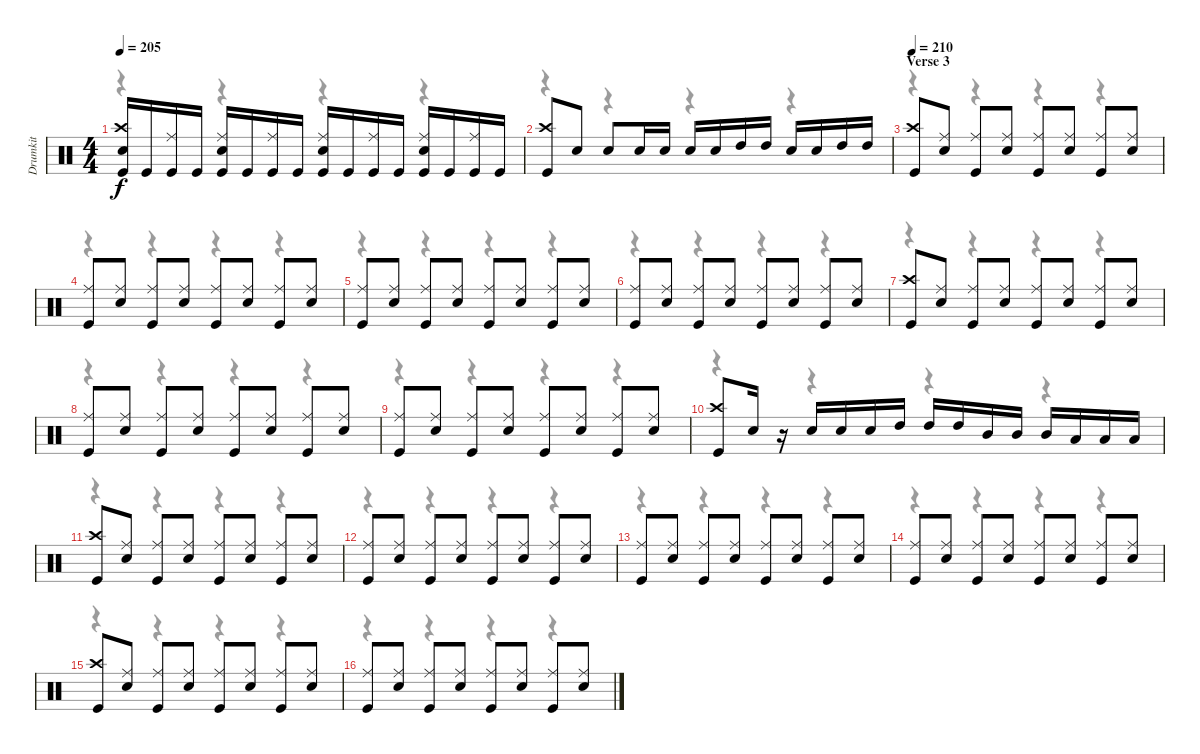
\track ("Drumkit" "Drumkit") {instrument percussion}
\staff {score}
\articulation defaults
\voice
\ts (4 4)
\tempo 205
\clef neutral
\ks c
("Crash high (hit)" "Snare (hit) 2" "Kick (hit)").16{dy f} "Kick (hit)".16 ("Ride (middle)" "Kick (hit)").16 "Kick (hit)".16 ("Ride (middle)" "Snare (hit) 2" "Kick (hit)").16 "Kick (hit)".16 ("Ride (middle)" "Kick (hit)").16 "Kick (hit)".16 ("Ride (middle)" "Snare (hit) 2" "Kick (hit)").16 "Kick (hit)".16 ("Ride (middle)" "Kick (hit)").16 "Kick (hit)".16 ("Ride (middle)" "Snare (hit) 2" "Kick (hit)").16 "Kick (hit)".16 ("Ride (middle)" "Kick (hit)").16 "Kick (hit)".16 |
("Crash high (hit)" "Kick (hit)").8 "Snare (hit) 2".8 "Snare (hit) 2".8 "Snare (hit) 2".16 "Snare (hit) 2".16 "Snare (hit) 2".16 "Snare (hit) 2".16 "High Tom (hit)".16 "High Tom (hit)".16 "Snare (hit) 2".16 "Snare (hit) 2".16 "High Tom (hit)".16 "High Tom (hit)".16 |
\section ("" "Verse 3")
\tempo 210
("Crash high (hit)" "Kick (hit)").8 ("Ride (middle)" "Snare (hit) 2").8 ("Ride (middle)" "Kick (hit)").8 ("Ride (middle)" "Snare (hit) 2").8 ("Ride (middle)" "Kick (hit)").8 ("Ride (middle)" "Snare (hit) 2").8 ("Ride (middle)" "Kick (hit)").8 ("Ride (middle)" "Snare (hit) 2").8 |
("Ride (middle)" "Kick (hit)").8 ("Ride (middle)" "Snare (hit) 2").8 ("Ride (middle)" "Kick (hit)").8 ("Ride (middle)" "Snare (hit) 2").8 ("Ride (middle)" "Kick (hit)").8 ("Ride (middle)" "Snare (hit) 2").8 ("Ride (middle)" "Kick (hit)").8 ("Ride (middle)" "Snare (hit) 2").8 |
("Ride (middle)" "Kick (hit)").8 ("Ride (middle)" "Snare (hit) 2").8 ("Ride (middle)" "Kick (hit)").8 ("Ride (middle)" "Snare (hit) 2").8 ("Ride (middle)" "Kick (hit)").8 ("Ride (middle)" "Snare (hit) 2").8 ("Ride (middle)" "Kick (hit)").8 ("Ride (middle)" "Snare (hit) 2").8 |
("Ride (middle)" "Kick (hit)").8 ("Ride (middle)" "Snare (hit) 2").8 ("Ride (middle)" "Kick (hit)").8 ("Ride (middle)" "Snare (hit) 2").8 ("Ride (middle)" "Kick (hit)").8 ("Ride (middle)" "Snare (hit) 2").8 ("Ride (middle)" "Kick (hit)").8 ("Ride (middle)" "Snare (hit) 2").8 |
("Crash high (hit)" "Kick (hit)").8 ("Ride (middle)" "Snare (hit) 2").8 ("Ride (middle)" "Kick (hit)").8 ("Ride (middle)" "Snare (hit) 2").8 ("Ride (middle)" "Kick (hit)").8 ("Ride (middle)" "Snare (hit) 2").8 ("Ride (middle)" "Kick (hit)").8 ("Ride (middle)" "Snare (hit) 2").8 |
("Ride (middle)" "Kick (hit)").8 ("Ride (middle)" "Snare (hit) 2").8 ("Ride (middle)" "Kick (hit)").8 ("Ride (middle)" "Snare (hit) 2").8 ("Ride (middle)" "Kick (hit)").8 ("Ride (middle)" "Snare (hit) 2").8 ("Ride (middle)" "Kick (hit)").8 ("Ride (middle)" "Snare (hit) 2").8 |
("Ride (middle)" "Kick (hit)").8 ("Ride (middle)" "Snare (hit) 2").8 ("Ride (middle)" "Kick (hit)").8 ("Ride (middle)" "Snare (hit) 2").8 ("Ride (middle)" "Kick (hit)").8 ("Ride (middle)" "Snare (hit) 2").8 ("Ride (middle)" "Kick (hit)").8 ("Ride (middle)" "Snare (hit) 2").8 |
("Crash high (hit)" "Kick (hit)").8 "Snare (hit) 2".16 r.16 "Snare (hit) 2".16 "Snare (hit) 2".16 "Snare (hit) 2".16 "High Tom (hit)".16 "High Tom (hit)".16 "High Tom (hit)".16 "Mid Tom (hit)".16 "Mid Tom (hit)".16 "Mid Tom (hit)".16 "Low Tom (hit)".16 "Low Tom (hit)".16 "Low Tom (hit)".16 |
("Crash high (hit)" "Kick (hit)").8 ("Ride (middle)" "Snare (hit) 2").8 ("Ride (middle)" "Kick (hit)").8 ("Ride (middle)" "Snare (hit) 2").8 ("Ride (middle)" "Kick (hit)").8 ("Ride (middle)" "Snare (hit) 2").8 ("Ride (middle)" "Kick (hit)").8 ("Ride (middle)" "Snare (hit) 2").8 |
("Ride (middle)" "Kick (hit)").8 ("Ride (middle)" "Snare (hit) 2").8 ("Ride (middle)" "Kick (hit)").8 ("Ride (middle)" "Snare (hit) 2").8 ("Ride (middle)" "Kick (hit)").8 ("Ride (middle)" "Snare (hit) 2").8 ("Ride (middle)" "Kick (hit)").8 ("Ride (middle)" "Snare (hit) 2").8 |
("Ride (middle)" "Kick (hit)").8 ("Ride (middle)" "Snare (hit) 2").8 ("Ride (middle)" "Kick (hit)").8 ("Ride (middle)" "Snare (hit) 2").8 ("Ride (middle)" "Kick (hit)").8 ("Ride (middle)" "Snare (hit) 2").8 ("Ride (middle)" "Kick (hit)").8 ("Ride (middle)" "Snare (hit) 2").8 |
("Ride (middle)" "Kick (hit)").8 ("Ride (middle)" "Snare (hit) 2").8 ("Ride (middle)" "Kick (hit)").8 ("Ride (middle)" "Snare (hit) 2").8 ("Ride (middle)" "Kick (hit)").8 ("Ride (middle)" "Snare (hit) 2").8 ("Ride (middle)" "Kick (hit)").8 ("Ride (middle)" "Snare (hit) 2").8 |
("Crash high (hit)" "Kick (hit)").8 ("Ride (middle)" "Snare (hit) 2").8 ("Ride (middle)" "Kick (hit)").8 ("Ride (middle)" "Snare (hit) 2").8 ("Ride (middle)" "Kick (hit)").8 ("Ride (middle)" "Snare (hit) 2").8 ("Ride (middle)" "Kick (hit)").8 ("Ride (middle)" "Snare (hit) 2").8 |
("Ride (middle)" "Kick (hit)").8 ("Ride (middle)" "Snare (hit) 2").8 ("Ride (middle)" "Kick (hit)").8 ("Ride (middle)" "Snare (hit) 2").8 ("Ride (middle)" "Kick (hit)").8 ("Ride (middle)" "Snare (hit) 2").8 ("Ride (middle)" "Kick (hit)").8 ("Ride (middle)" "Snare (hit) 2").8
\voice
\clef neutral
\ottava regular
\simile none
\ks c
r.4{dy f} r.4 r.4 r.4 |
r.4 r.4 r.4 r.4 |
r.4 r.4 r.4 r.4 |
r.4 r.4 r.4 r.4 |
r.4 r.4 r.4 r.4 |
r.4 r.4 r.4 r.4 |
r.4 r.4 r.4 r.4 |
r.4 r.4 r.4 r.4 |
r.4 r.4 r.4 r.4 |
r.4 r.4 r.4 r.4 |
r.4 r.4 r.4 r.4 |
r.4 r.4 r.4 r.4 |
r.4 r.4 r.4 r.4 |
r.4 r.4 r.4 r.4 |
r.4 r.4 r.4 r.4 |
r.4 r.4 r.4 r.4
